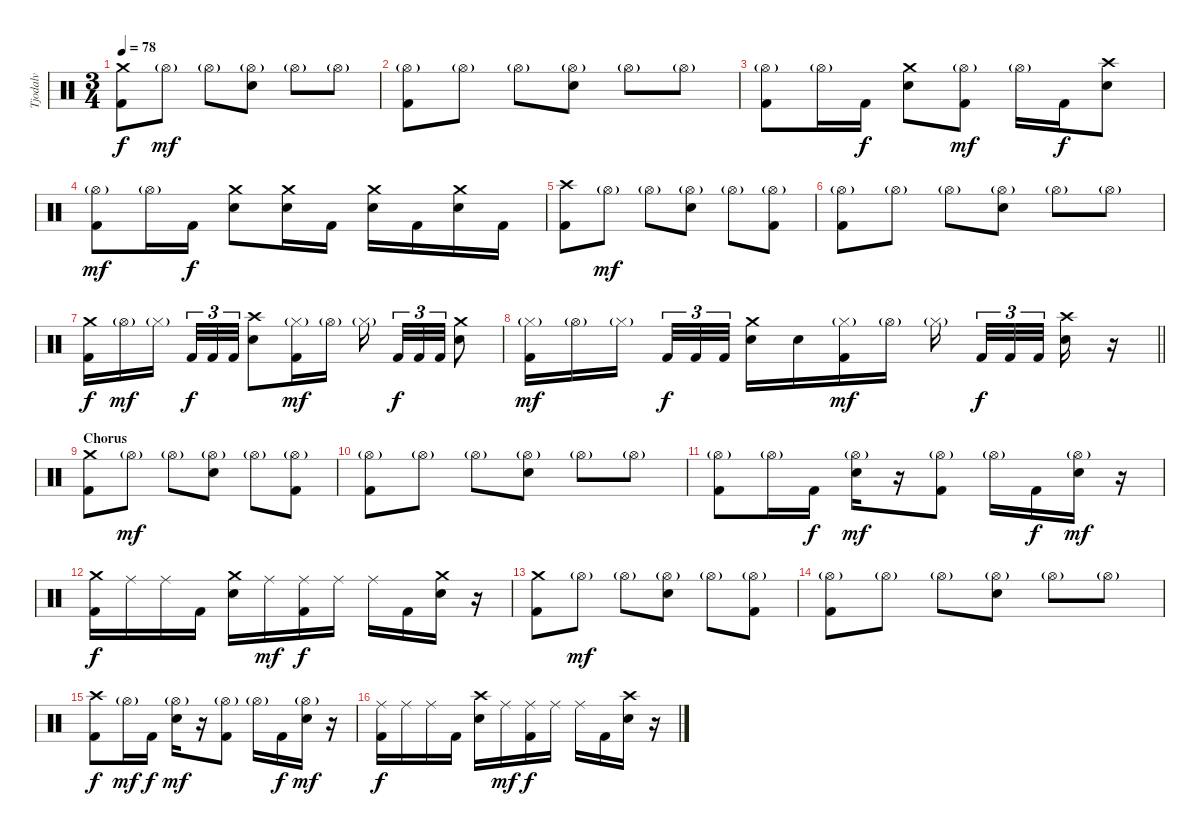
\track ("Tjodalv" "Tjodalv") {instrument percussion}
\staff {score}
\articulation defaults
\ts (3 4)
\tempo 78
\clef neutral
\ks c
("Crash medium (hit)" "Kick (hit) 2").8{dy f} "Hi-Hat (open)"{g}.8{dy mf} "Hi-Hat (open)"{g}.8 ("Hi-Hat (open)"{g} "Electric Snare (hit)").8 "Hi-Hat (open)"{g}.8 "Hi-Hat (open)"{g}.8 |
("Hi-Hat (open)"{g} "Kick (hit) 2").8 "Hi-Hat (open)"{g}.8 "Hi-Hat (open)"{g}.8 ("Hi-Hat (open)"{g} "Electric Snare (hit)").8 "Hi-Hat (open)"{g}.8 "Hi-Hat (open)"{g}.8 |
("Hi-Hat (open)"{g} "Kick (hit) 2").8 "Hi-Hat (open)"{g}.16 "Kick (hit) 2".16{dy f} ("Crash medium (hit)" "Electric Snare (hit)").8 ("Hi-Hat (open)"{g} "Kick (hit) 2").8{dy mf} "Hi-Hat (open)"{g}.16 "Kick (hit) 2".16{dy f} ("Crash high (hit)" "Electric Snare (hit)").8 |
("Hi-Hat (open)"{g} "Kick (hit) 2").8{dy mf} "Hi-Hat (open)"{g}.16 "Kick (hit) 2".16{dy f} ("Crash medium (hit)" "Electric Snare (hit)").8 ("Crash medium (hit)" "Electric Snare (hit)").16 "Kick (hit) 2".16 ("Crash medium (hit)" "Electric Snare (hit)").16 "Kick (hit) 2".16 ("Crash medium (hit)" "Electric Snare (hit)").16 "Kick (hit) 2".16 |
("Crash high (hit)" "Kick (hit) 2").8 "Hi-Hat (open)"{g}.8{dy mf} "Hi-Hat (open)"{g}.8 ("Hi-Hat (open)"{g} "Electric Snare (hit)").8 "Hi-Hat (open)"{g}.8 ("Hi-Hat (open)"{g} "Kick (hit) 2").8 |
("Hi-Hat (open)"{g} "Kick (hit) 2").8 "Hi-Hat (open)"{g}.8 "Hi-Hat (open)"{g}.8 ("Hi-Hat (open)"{g} "Electric Snare (hit)").8 "Hi-Hat (open)"{g}.8 "Hi-Hat (open)"{g}.8 |
("Crash medium (hit)" "Kick (hit) 2").16{dy f} "Hi-Hat (open)"{g}.16{dy mf} "Hi-Hat (closed)"{g}.16{beam splitsecondary} "Kick (hit) 2".32{tu (3 2) dy f} "Kick (hit) 2".32{tu (3 2)} "Kick (hit) 2".32{tu (3 2)} ("Crash high (hit)" "Electric Snare (hit)").8 ("Hi-Hat (closed)"{g} "Kick (hit) 2").16{dy mf} "Hi-Hat (open)"{g}.16 "Hi-Hat (closed)"{g}.16{beam splitsecondary} "Kick (hit) 2".32{tu (3 2) dy f} "Kick (hit) 2".32{tu (3 2)} "Kick (hit) 2".32{tu (3 2)} ("Crash medium (hit)" "Electric Snare (hit)").8 |
\barLineRight lightlight
("Hi-Hat (closed)"{g} "Kick (hit) 2").16{dy mf} "Hi-Hat (open)"{g}.16 "Hi-Hat (closed)"{g}.16{beam splitsecondary} "Kick (hit) 2".32{tu (3 2) dy f} "Kick (hit) 2".32{tu (3 2)} "Kick (hit) 2".32{tu (3 2)} ("Crash medium (hit)" "Electric Snare (hit)").16 "Electric Snare (hit)".16 ("Hi-Hat (closed)"{g} "Kick (hit) 2").16{dy mf} "Hi-Hat (open)"{g}.16 "Hi-Hat (closed)"{g}.16{beam splitsecondary} "Kick (hit) 2".32{tu (3 2) dy f} "Kick (hit) 2".32{tu (3 2)} "Kick (hit) 2".32{tu (3 2) beam splitsecondary} ("Crash high (hit)" "Electric Snare (hit)").16 r.16 |
\section ("" "Chorus")
("Crash medium (hit)" "Kick (hit) 2").8 "Hi-Hat (open)"{g}.8{dy mf} "Hi-Hat (open)"{g}.8 ("Hi-Hat (open)"{g} "Electric Snare (hit)").8 "Hi-Hat (open)"{g}.8 ("Hi-Hat (open)"{g} "Kick (hit) 2").8 |
("Hi-Hat (open)"{g} "Kick (hit) 2").8 "Hi-Hat (open)"{g}.8 "Hi-Hat (open)"{g}.8 ("Hi-Hat (open)"{g} "Electric Snare (hit)").8 "Hi-Hat (open)"{g}.8 "Hi-Hat (open)"{g}.8 |
("Hi-Hat (open)"{g} "Kick (hit) 2").8 "Hi-Hat (open)"{g}.16 "Kick (hit) 2".16{dy f} ("Hi-Hat (open)"{g} "Electric Snare (hit)").16{dy mf} r.16 ("Hi-Hat (open)"{g} "Kick (hit) 2").8 "Hi-Hat (open)"{g}.16 "Kick (hit) 2".16{dy f} ("Hi-Hat (open)"{g} "Electric Snare (hit)").16{dy mf} r.16 |
("Crash medium (hit)" "Kick (hit) 2").16{dy f} "Ride (middle)".16 "Ride (middle)".16 "Kick (hit) 2".16 ("Crash medium (hit)" "Electric Snare (hit)").16 "Ride (middle)".16{dy mf} ("Ride (middle)" "Kick (hit) 2").16{dy f} "Ride (middle)".16 "Ride (middle)".16 "Kick (hit) 2".16 ("Crash medium (hit)" "Electric Snare (hit)").16 r.16 |
("Crash medium (hit)" "Kick (hit) 2").8 "Hi-Hat (open)"{g}.8{dy mf} "Hi-Hat (open)"{g}.8 ("Hi-Hat (open)"{g} "Electric Snare (hit)").8 "Hi-Hat (open)"{g}.8 ("Hi-Hat (open)"{g} "Kick (hit) 2").8 |
("Hi-Hat (open)"{g} "Kick (hit) 2").8 "Hi-Hat (open)"{g}.8 "Hi-Hat (open)"{g}.8 ("Hi-Hat (open)"{g} "Electric Snare (hit)").8 "Hi-Hat (open)"{g}.8 "Hi-Hat (open)"{g}.8 |
("Crash high (hit)" "Kick (hit) 2").8{dy f} "Hi-Hat (open)"{g}.16{dy mf} "Kick (hit) 2".16{dy f} ("Hi-Hat (open)"{g} "Electric Snare (hit)").16{dy mf} r.16 ("Hi-Hat (open)"{g} "Kick (hit) 2").8 "Hi-Hat (open)"{g}.16 "Kick (hit) 2".16{dy f} ("Hi-Hat (open)"{g} "Electric Snare (hit)").16{dy mf} r.16 |
("Ride (middle)" "Kick (hit) 2").16{dy f} "Ride (middle)".16 "Ride (middle)".16 "Kick (hit) 2".16 ("Crash high (hit)" "Electric Snare (hit)").16 "Ride (middle)".16{dy mf} ("Ride (middle)" "Kick (hit) 2").16{dy f} "Ride (middle)".16 "Ride (middle)".16 "Kick (hit) 2".16 ("Crash high (hit)" "Electric Snare (hit)").16 r.16
